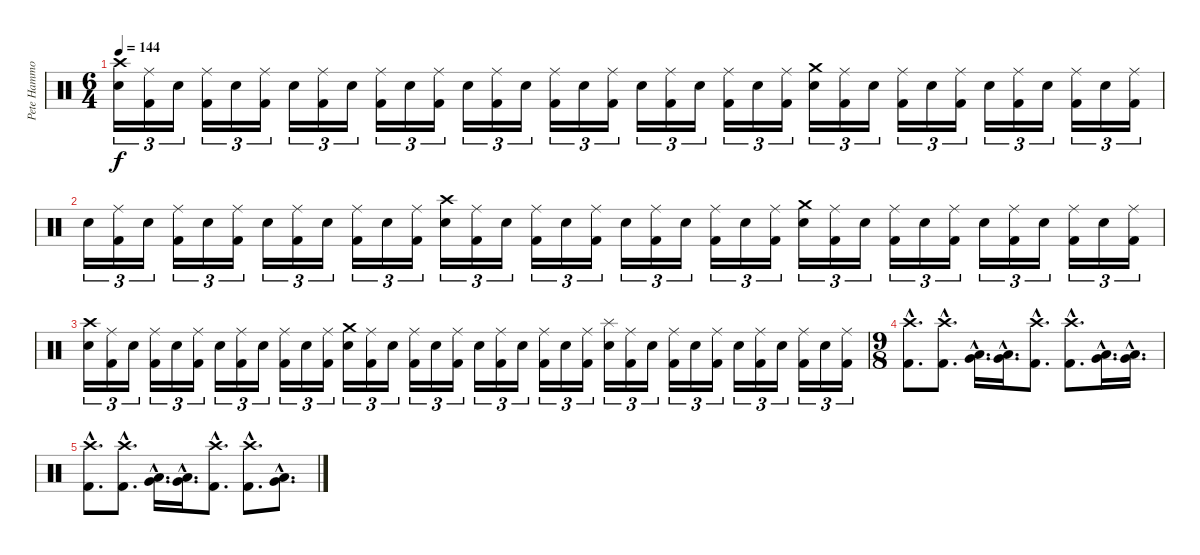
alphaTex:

\track ("Pete Hammoura" "Pete Hammo") {instrument percussion}
\staff {score}
\articulation defaults
\ts (6 4)
\tempo 144
\clef neutral
\ks c
("Crash high (hit)" "Electric Snare (hit)").16{tu (3 2) dy f} ("Ride (middle)" "Kick (hit) 2").16{tu (3 2)} "Electric Snare (hit)".16{tu (3 2)} ("Ride (middle)" "Kick (hit) 2").16{tu (3 2)} "Electric Snare (hit)".16{tu (3 2)} ("Ride (middle)" "Kick (hit) 2").16{tu (3 2)} "Electric Snare (hit)".16{tu (3 2)} ("Ride (middle)" "Kick (hit) 2").16{tu (3 2)} "Electric Snare (hit)".16{tu (3 2)} ("Ride (middle)" "Kick (hit) 2").16{tu (3 2)} "Electric Snare (hit)".16{tu (3 2)} ("Ride (middle)" "Kick (hit) 2").16{tu (3 2)} "Electric Snare (hit)".16{tu (3 2)} ("Ride (middle)" "Kick (hit) 2").16{tu (3 2)} "Electric Snare (hit)".16{tu (3 2)} ("Ride (middle)" "Kick (hit) 2").16{tu (3 2)} "Electric Snare (hit)".16{tu (3 2)} ("Ride (middle)" "Kick (hit) 2").16{tu (3 2)} "Electric Snare (hit)".16{tu (3 2)} ("Ride (middle)" "Kick (hit) 2").16{tu (3 2)} "Electric Snare (hit)".16{tu (3 2)} ("Ride (middle)" "Kick (hit) 2").16{tu (3 2)} "Electric Snare (hit)".16{tu (3 2)} ("Ride (middle)" "Kick (hit) 2").16{tu (3 2)} ("Crash medium (hit)" "Electric Snare (hit)").16{tu (3 2)} ("Ride (middle)" "Kick (hit) 2").16{tu (3 2)} "Electric Snare (hit)".16{tu (3 2)} ("Ride (middle)" "Kick (hit) 2").16{tu (3 2)} "Electric Snare (hit)".16{tu (3 2)} ("Ride (middle)" "Kick (hit) 2").16{tu (3 2)} "Electric Snare (hit)".16{tu (3 2)} ("Ride (middle)" "Kick (hit) 2").16{tu (3 2)} "Electric Snare (hit)".16{tu (3 2)} ("Ride (middle)" "Kick (hit) 2").16{tu (3 2)} "Electric Snare (hit)".16{tu (3 2)} ("Ride (middle)" "Kick (hit) 2").16{tu (3 2)} |
"Electric Snare (hit)".16{tu (3 2)} ("Ride (middle)" "Kick (hit) 2").16{tu (3 2)} "Electric Snare (hit)".16{tu (3 2)} ("Ride (middle)" "Kick (hit) 2").16{tu (3 2)} "Electric Snare (hit)".16{tu (3 2)} ("Ride (middle)" "Kick (hit) 2").16{tu (3 2)} "Electric Snare (hit)".16{tu (3 2)} ("Ride (middle)" "Kick (hit) 2").16{tu (3 2)} "Electric Snare (hit)".16{tu (3 2)} ("Ride (middle)" "Kick (hit) 2").16{tu (3 2)} "Electric Snare (hit)".16{tu (3 2)} ("Ride (middle)" "Kick (hit) 2").16{tu (3 2)} ("Crash high (hit)" "Electric Snare (hit)").16{tu (3 2)} ("Ride (middle)" "Kick (hit) 2").16{tu (3 2)} "Electric Snare (hit)".16{tu (3 2)} ("Ride (middle)" "Kick (hit) 2").16{tu (3 2)} "Electric Snare (hit)".16{tu (3 2)} ("Ride (middle)" "Kick (hit) 2").16{tu (3 2)} "Electric Snare (hit)".16{tu (3 2)} ("Ride (middle)" "Kick (hit) 2").16{tu (3 2)} "Electric Snare (hit)".16{tu (3 2)} ("Ride (middle)" "Kick (hit) 2").16{tu (3 2)} "Electric Snare (hit)".16{tu (3 2)} ("Ride (middle)" "Kick (hit) 2").16{tu (3 2)} ("Crash medium (hit)" "Electric Snare (hit)").16{tu (3 2)} ("Ride (middle)" "Kick (hit) 2").16{tu (3 2)} "Electric Snare (hit)".16{tu (3 2)} ("Ride (middle)" "Kick (hit) 2").16{tu (3 2)} "Electric Snare (hit)".16{tu (3 2)} ("Ride (middle)" "Kick (hit) 2").16{tu (3 2)} "Electric Snare (hit)".16{tu (3 2)} ("Ride (middle)" "Kick (hit) 2").16{tu (3 2)} "Electric Snare (hit)".16{tu (3 2)} ("Ride (middle)" "Kick (hit) 2").16{tu (3 2)} "Electric Snare (hit)".16{tu (3 2)} ("Ride (middle)" "Kick (hit) 2").16{tu (3 2)} |
("Crash high (hit)" "Electric Snare (hit)").16{tu (3 2)} ("Ride (middle)" "Kick (hit) 2").16{tu (3 2)} "Electric Snare (hit)".16{tu (3 2)} ("Ride (middle)" "Kick (hit) 2").16{tu (3 2)} "Electric Snare (hit)".16{tu (3 2)} ("Ride (middle)" "Kick (hit) 2").16{tu (3 2)} "Electric Snare (hit)".16{tu (3 2)} ("Ride (middle)" "Kick (hit) 2").16{tu (3 2)} "Electric Snare (hit)".16{tu (3 2)} ("Ride (middle)" "Kick (hit) 2").16{tu (3 2)} "Electric Snare (hit)".16{tu (3 2)} ("Ride (middle)" "Kick (hit) 2").16{tu (3 2)} ("Crash medium (hit)" "Electric Snare (hit)").16{tu (3 2)} ("Ride (middle)" "Kick (hit) 2").16{tu (3 2)} "Electric Snare (hit)".16{tu (3 2)} ("Ride (middle)" "Kick (hit) 2").16{tu (3 2)} "Electric Snare (hit)".16{tu (3 2)} ("Ride (middle)" "Kick (hit) 2").16{tu (3 2)} "Electric Snare (hit)".16{tu (3 2)} ("Ride (middle)" "Kick (hit) 2").16{tu (3 2)} "Electric Snare (hit)".16{tu (3 2)} ("Ride (middle)" "Kick (hit) 2").16{tu (3 2)} "Electric Snare (hit)".16{tu (3 2)} ("Ride (middle)" "Kick (hit) 2").16{tu (3 2)} ("Splash (hit)" "Electric Snare (hit)").16{tu (3 2)} ("Ride (middle)" "Kick (hit) 2").16{tu (3 2)} "Electric Snare (hit)".16{tu (3 2)} ("Ride (middle)" "Kick (hit) 2").16{tu (3 2)} "Electric Snare (hit)".16{tu (3 2)} ("Ride (middle)" "Kick (hit) 2").16{tu (3 2)} "Electric Snare (hit)".16{tu (3 2)} ("Ride (middle)" "Kick (hit) 2").16{tu (3 2)} "Electric Snare (hit)".16{tu (3 2)} ("Ride (middle)" "Kick (hit) 2").16{tu (3 2)} "Electric Snare (hit)".16{tu (3 2)} ("Ride (middle)" "Kick (hit) 2").16{tu (3 2)} |
\ts (9 8)
("Crash high (hit)"{hac} "Kick (hit) 2"{hac}).8{d} ("Crash high (hit)"{hac} "Kick (hit) 2"{hac}).8{d} ("Low Tom (hit)"{hac} "Very Low Tom (hit)"{hac}).16{d} ("Very Low Tom (hit)"{hac} "Low Floor Tom (hit)"{hac}).16{d} ("Crash high (hit)"{hac} "Kick (hit) 2"{hac}).8{d} ("Crash high (hit)"{hac} "Kick (hit) 2"{hac}).8{d} ("Low Tom (hit)"{hac} "Very Low Tom (hit)"{hac}).16{d} ("Very Low Tom (hit)"{hac} "Low Floor Tom (hit)"{hac}).16{d} |
("Crash high (hit)"{hac} "Kick (hit) 2"{hac}).8{d} ("Crash high (hit)"{hac} "Kick (hit) 2"{hac}).8{d} ("Low Tom (hit)"{hac} "Very Low Tom (hit)"{hac}).16{d} ("Very Low Tom (hit)"{hac} "Low Floor Tom (hit)"{hac}).16{d} ("Crash high (hit)"{hac} "Kick (hit) 2"{hac}).8{d} ("Crash high (hit)"{hac} "Kick (hit) 2"{hac}).8{d} ("Low Tom (hit)"{hac} "Very Low Tom (hit)"{hac}).8{d}
